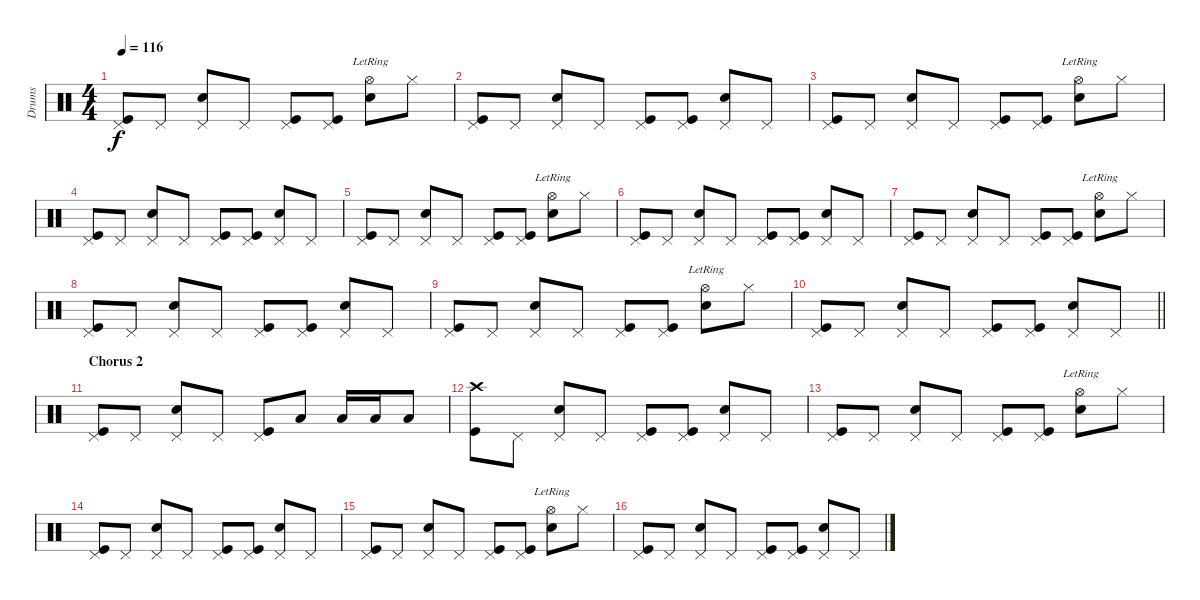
\track ("Drums" "Drums") {instrument percussion}
\staff {score}
\articulation defaults
\ts (4 4)
\tempo 116
\clef neutral
\ks c
("Pedal Hi-Hat (hit)" "Kick (hit)").8{dy f} "Pedal Hi-Hat (hit)".8 ("Pedal Hi-Hat (hit)" "Snare (hit) 2").8 "Pedal Hi-Hat (hit)".8 ("Pedal Hi-Hat (hit)" "Kick (hit)").8 ("Pedal Hi-Hat (hit)" "Kick (hit)").8 ("Hi-Hat (open)"{lr} "Snare (hit) 2").8 "Hi-Hat (closed)".8 |
("Pedal Hi-Hat (hit)" "Kick (hit)").8 "Pedal Hi-Hat (hit)".8 ("Pedal Hi-Hat (hit)" "Snare (hit) 2").8 "Pedal Hi-Hat (hit)".8 ("Pedal Hi-Hat (hit)" "Kick (hit)").8 ("Pedal Hi-Hat (hit)" "Kick (hit)").8 ("Pedal Hi-Hat (hit)" "Snare (hit) 2").8 "Pedal Hi-Hat (hit)".8 |
("Pedal Hi-Hat (hit)" "Kick (hit)").8 "Pedal Hi-Hat (hit)".8 ("Pedal Hi-Hat (hit)" "Snare (hit) 2").8 "Pedal Hi-Hat (hit)".8 ("Pedal Hi-Hat (hit)" "Kick (hit)").8 ("Pedal Hi-Hat (hit)" "Kick (hit)").8 ("Hi-Hat (open)"{lr} "Snare (hit) 2").8 "Hi-Hat (closed)".8 |
("Pedal Hi-Hat (hit)" "Kick (hit)").8 "Pedal Hi-Hat (hit)".8 ("Pedal Hi-Hat (hit)" "Snare (hit) 2").8 "Pedal Hi-Hat (hit)".8 ("Pedal Hi-Hat (hit)" "Kick (hit)").8 ("Pedal Hi-Hat (hit)" "Kick (hit)").8 ("Pedal Hi-Hat (hit)" "Snare (hit) 2").8 "Pedal Hi-Hat (hit)".8 |
("Pedal Hi-Hat (hit)" "Kick (hit)").8 "Pedal Hi-Hat (hit)".8 ("Pedal Hi-Hat (hit)" "Snare (hit) 2").8 "Pedal Hi-Hat (hit)".8 ("Pedal Hi-Hat (hit)" "Kick (hit)").8 ("Pedal Hi-Hat (hit)" "Kick (hit)").8 ("Hi-Hat (open)"{lr} "Snare (hit) 2").8 "Hi-Hat (closed)".8 |
("Pedal Hi-Hat (hit)" "Kick (hit)").8 "Pedal Hi-Hat (hit)".8 ("Pedal Hi-Hat (hit)" "Snare (hit) 2").8 "Pedal Hi-Hat (hit)".8 ("Pedal Hi-Hat (hit)" "Kick (hit)").8 ("Pedal Hi-Hat (hit)" "Kick (hit)").8 ("Pedal Hi-Hat (hit)" "Snare (hit) 2").8 "Pedal Hi-Hat (hit)".8 |
("Pedal Hi-Hat (hit)" "Kick (hit)").8 "Pedal Hi-Hat (hit)".8 ("Pedal Hi-Hat (hit)" "Snare (hit) 2").8 "Pedal Hi-Hat (hit)".8 ("Pedal Hi-Hat (hit)" "Kick (hit)").8 ("Pedal Hi-Hat (hit)" "Kick (hit)").8 ("Hi-Hat (open)"{lr} "Snare (hit) 2").8 "Hi-Hat (closed)".8 |
("Pedal Hi-Hat (hit)" "Kick (hit)").8 "Pedal Hi-Hat (hit)".8 ("Pedal Hi-Hat (hit)" "Snare (hit) 2").8 "Pedal Hi-Hat (hit)".8 ("Pedal Hi-Hat (hit)" "Kick (hit)").8 ("Pedal Hi-Hat (hit)" "Kick (hit)").8 ("Pedal Hi-Hat (hit)" "Snare (hit) 2").8 "Pedal Hi-Hat (hit)".8 |
("Pedal Hi-Hat (hit)" "Kick (hit)").8 "Pedal Hi-Hat (hit)".8 ("Pedal Hi-Hat (hit)" "Snare (hit) 2").8 "Pedal Hi-Hat (hit)".8 ("Pedal Hi-Hat (hit)" "Kick (hit)").8 ("Pedal Hi-Hat (hit)" "Kick (hit)").8 ("Hi-Hat (open)"{lr} "Snare (hit) 2").8 "Hi-Hat (closed)".8 |
\barLineRight lightlight
("Pedal Hi-Hat (hit)" "Kick (hit)").8 "Pedal Hi-Hat (hit)".8 ("Pedal Hi-Hat (hit)" "Snare (hit) 2").8 "Pedal Hi-Hat (hit)".8 ("Pedal Hi-Hat (hit)" "Kick (hit)").8 ("Pedal Hi-Hat (hit)" "Kick (hit)").8 ("Pedal Hi-Hat (hit)" "Snare (hit) 2").8 "Pedal Hi-Hat (hit)".8 |
\section ("" "Chorus 2")
("Pedal Hi-Hat (hit)" "Kick (hit)").8 "Pedal Hi-Hat (hit)".8 ("Pedal Hi-Hat (hit)" "Snare (hit) 2").8 "Pedal Hi-Hat (hit)".8 ("Pedal Hi-Hat (hit)" "Kick (hit)").8 "Low Tom (hit)".8 "Low Tom (hit)".16 "Low Tom (hit)".16 "Low Tom (hit)".8 |
("Crash high (hit)" "Kick (hit)").8 "Pedal Hi-Hat (hit)".8 ("Pedal Hi-Hat (hit)" "Snare (hit) 2").8 "Pedal Hi-Hat (hit)".8 ("Pedal Hi-Hat (hit)" "Kick (hit)").8 ("Pedal Hi-Hat (hit)" "Kick (hit)").8 ("Pedal Hi-Hat (hit)" "Snare (hit) 2").8 "Pedal Hi-Hat (hit)".8 |
("Pedal Hi-Hat (hit)" "Kick (hit)").8 "Pedal Hi-Hat (hit)".8 ("Pedal Hi-Hat (hit)" "Snare (hit) 2").8 "Pedal Hi-Hat (hit)".8 ("Pedal Hi-Hat (hit)" "Kick (hit)").8 ("Pedal Hi-Hat (hit)" "Kick (hit)").8 ("Hi-Hat (open)"{lr} "Snare (hit) 2").8 "Hi-Hat (closed)".8 |
("Pedal Hi-Hat (hit)" "Kick (hit)").8 "Pedal Hi-Hat (hit)".8 ("Pedal Hi-Hat (hit)" "Snare (hit) 2").8 "Pedal Hi-Hat (hit)".8 ("Pedal Hi-Hat (hit)" "Kick (hit)").8 ("Pedal Hi-Hat (hit)" "Kick (hit)").8 ("Pedal Hi-Hat (hit)" "Snare (hit) 2").8 "Pedal Hi-Hat (hit)".8 |
("Pedal Hi-Hat (hit)" "Kick (hit)").8 "Pedal Hi-Hat (hit)".8 ("Pedal Hi-Hat (hit)" "Snare (hit) 2").8 "Pedal Hi-Hat (hit)".8 ("Pedal Hi-Hat (hit)" "Kick (hit)").8 ("Pedal Hi-Hat (hit)" "Kick (hit)").8 ("Hi-Hat (open)"{lr} "Snare (hit) 2").8 "Hi-Hat (closed)".8 |
("Pedal Hi-Hat (hit)" "Kick (hit)").8 "Pedal Hi-Hat (hit)".8 ("Pedal Hi-Hat (hit)" "Snare (hit) 2").8 "Pedal Hi-Hat (hit)".8 ("Pedal Hi-Hat (hit)" "Kick (hit)").8 ("Pedal Hi-Hat (hit)" "Kick (hit)").8 ("Pedal Hi-Hat (hit)" "Snare (hit) 2").8 "Pedal Hi-Hat (hit)".8
